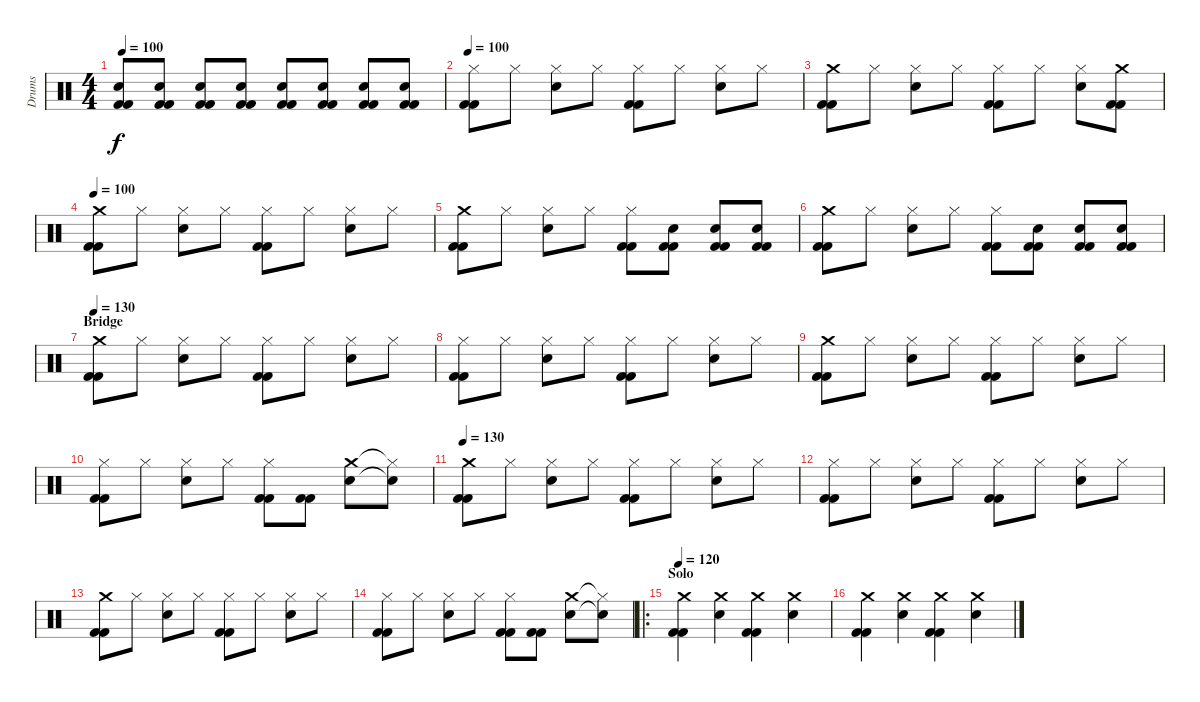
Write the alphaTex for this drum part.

\track ("Drums" "Drums") {instrument percussion}
\staff {score}
\articulation defaults
\ts (4 4)
\tempo 100
\clef neutral
\ks c
("Electric Snare (hit)" "Kick (hit) 2" "Kick (hit) 2").8{dy f volume 3} ("Kick (hit) 2" "Kick (hit) 2" "Electric Snare (hit)").8{volume 5} ("Electric Snare (hit)" "Kick (hit) 2" "Kick (hit) 2").8{volume 7} ("Kick (hit) 2" "Kick (hit) 2" "Electric Snare (hit)").8{volume 10} ("Electric Snare (hit)" "Kick (hit) 2" "Kick (hit) 2").8{volume 13} ("Kick (hit) 2" "Kick (hit) 2" "Electric Snare (hit)").8{volume 13} ("Electric Snare (hit)" "Kick (hit) 2" "Kick (hit) 2").8{volume 13} ("Kick (hit) 2" "Kick (hit) 2" "Electric Snare (hit)").8{volume 13} |
\tempo 100
("Hi-Hat (closed)" "Kick (hit) 2" "Kick (hit) 2").8 "Hi-Hat (closed)".8 ("Electric Snare (hit)" "Hi-Hat (closed)").8 "Hi-Hat (closed)".8 ("Hi-Hat (closed)" "Kick (hit) 2" "Kick (hit) 2").8 "Hi-Hat (closed)".8 ("Hi-Hat (closed)" "Electric Snare (hit)").8 "Hi-Hat (closed)".8 |
("Crash medium (hit)" "Kick (hit) 2" "Kick (hit) 2").8 "Hi-Hat (closed)".8 ("Electric Snare (hit)" "Hi-Hat (closed)").8 "Hi-Hat (closed)".8 ("Hi-Hat (closed)" "Kick (hit) 2" "Kick (hit) 2").8 "Hi-Hat (closed)".8 ("Hi-Hat (closed)" "Electric Snare (hit)").8 ("Kick (hit) 2" "Kick (hit) 2" "Crash medium (hit)").8 |
\tempo 100
("Crash medium (hit)" "Kick (hit) 2" "Kick (hit) 2").8 "Hi-Hat (closed)".8 ("Electric Snare (hit)" "Hi-Hat (closed)").8 "Hi-Hat (closed)".8 ("Hi-Hat (closed)" "Kick (hit) 2" "Kick (hit) 2").8 "Hi-Hat (closed)".8 ("Hi-Hat (closed)" "Electric Snare (hit)").8 "Hi-Hat (closed)".8 |
("Crash medium (hit)" "Kick (hit) 2" "Kick (hit) 2").8 "Hi-Hat (closed)".8 ("Electric Snare (hit)" "Hi-Hat (closed)").8 "Hi-Hat (closed)".8 ("Hi-Hat (closed)" "Kick (hit) 2" "Kick (hit) 2").8 ("Kick (hit) 2" "Kick (hit) 2" "Electric Snare (hit)").8 ("Electric Snare (hit)" "Kick (hit) 2" "Kick (hit) 2").8 ("Kick (hit) 2" "Kick (hit) 2" "Electric Snare (hit)").8 |
("Crash medium (hit)" "Kick (hit) 2" "Kick (hit) 2").8 "Hi-Hat (closed)".8 ("Electric Snare (hit)" "Hi-Hat (closed)").8 "Hi-Hat (closed)".8 ("Hi-Hat (closed)" "Kick (hit) 2" "Kick (hit) 2").8 ("Kick (hit) 2" "Kick (hit) 2" "Electric Snare (hit)").8 ("Electric Snare (hit)" "Kick (hit) 2" "Kick (hit) 2").8 ("Kick (hit) 2" "Kick (hit) 2" "Electric Snare (hit)").8 |
\section ("" "Bridge ")
\tempo 130
("Crash medium (hit)" "Kick (hit) 2" "Kick (hit) 2").8 "Hi-Hat (closed)".8 ("Electric Snare (hit)" "Hi-Hat (closed)").8 "Hi-Hat (closed)".8 ("Hi-Hat (closed)" "Kick (hit) 2" "Kick (hit) 2").8 "Hi-Hat (closed)".8 ("Electric Snare (hit)" "Hi-Hat (closed)").8 "Hi-Hat (closed)".8 |
("Hi-Hat (closed)" "Kick (hit) 2" "Kick (hit) 2").8 "Hi-Hat (closed)".8 ("Electric Snare (hit)" "Hi-Hat (closed)").8 "Hi-Hat (closed)".8 ("Hi-Hat (closed)" "Kick (hit) 2" "Kick (hit) 2").8 "Hi-Hat (closed)".8 ("Electric Snare (hit)" "Hi-Hat (closed)").8 "Hi-Hat (closed)".8 |
("Crash medium (hit)" "Kick (hit) 2" "Kick (hit) 2").8 "Hi-Hat (closed)".8 ("Electric Snare (hit)" "Hi-Hat (closed)").8 "Hi-Hat (closed)".8 ("Hi-Hat (closed)" "Kick (hit) 2" "Kick (hit) 2").8 "Hi-Hat (closed)".8 ("Electric Snare (hit)" "Hi-Hat (closed)").8 "Hi-Hat (closed)".8 |
("Hi-Hat (closed)" "Kick (hit) 2" "Kick (hit) 2").8 "Hi-Hat (closed)".8 ("Electric Snare (hit)" "Hi-Hat (closed)").8 "Hi-Hat (closed)".8 ("Hi-Hat (closed)" "Kick (hit) 2" "Kick (hit) 2").8 ("Kick (hit) 2" "Kick (hit) 2").8 ("Electric Snare (hit)" "Crash medium (hit)").8 ("Snare (hit)"{t} "Hi-Hat (closed)"{t}).8 |
\tempo 130
("Crash medium (hit)" "Kick (hit) 2" "Kick (hit) 2").8 "Hi-Hat (closed)".8 ("Electric Snare (hit)" "Hi-Hat (closed)").8 "Hi-Hat (closed)".8 ("Hi-Hat (closed)" "Kick (hit) 2" "Kick (hit) 2").8 "Hi-Hat (closed)".8 ("Electric Snare (hit)" "Hi-Hat (closed)").8 "Hi-Hat (closed)".8 |
("Hi-Hat (closed)" "Kick (hit) 2" "Kick (hit) 2").8 "Hi-Hat (closed)".8 ("Electric Snare (hit)" "Hi-Hat (closed)").8 "Hi-Hat (closed)".8 ("Hi-Hat (closed)" "Kick (hit) 2" "Kick (hit) 2").8 "Hi-Hat (closed)".8 ("Electric Snare (hit)" "Hi-Hat (closed)").8 "Hi-Hat (closed)".8 |
("Crash medium (hit)" "Kick (hit) 2" "Kick (hit) 2").8 "Hi-Hat (closed)".8 ("Electric Snare (hit)" "Hi-Hat (closed)").8 "Hi-Hat (closed)".8 ("Hi-Hat (closed)" "Kick (hit) 2" "Kick (hit) 2").8 "Hi-Hat (closed)".8 ("Electric Snare (hit)" "Hi-Hat (closed)").8 "Hi-Hat (closed)".8 |
("Hi-Hat (closed)" "Kick (hit) 2" "Kick (hit) 2").8 "Hi-Hat (closed)".8 ("Electric Snare (hit)" "Hi-Hat (closed)").8 "Hi-Hat (closed)".8 ("Hi-Hat (closed)" "Kick (hit) 2" "Kick (hit) 2").8 ("Kick (hit) 2" "Kick (hit) 2").8 ("Electric Snare (hit)" "Crash medium (hit)").8 ("Snare (hit)"{t} "Hi-Hat (closed)"{t}).8 |
\ro
\section ("" "Solo")
\tempo 120
("Crash medium (hit)" "Kick (hit) 2" "Kick (hit) 2").4 ("Electric Snare (hit)" "Crash medium (hit)").4 ("Crash medium (hit)" "Kick (hit) 2" "Kick (hit) 2").4 ("Electric Snare (hit)" "Crash medium (hit)").4 |
("Crash medium (hit)" "Kick (hit) 2" "Kick (hit) 2").4 ("Electric Snare (hit)" "Crash medium (hit)").4 ("Crash medium (hit)" "Kick (hit) 2" "Kick (hit) 2").4 ("Electric Snare (hit)" "Crash medium (hit)").4
